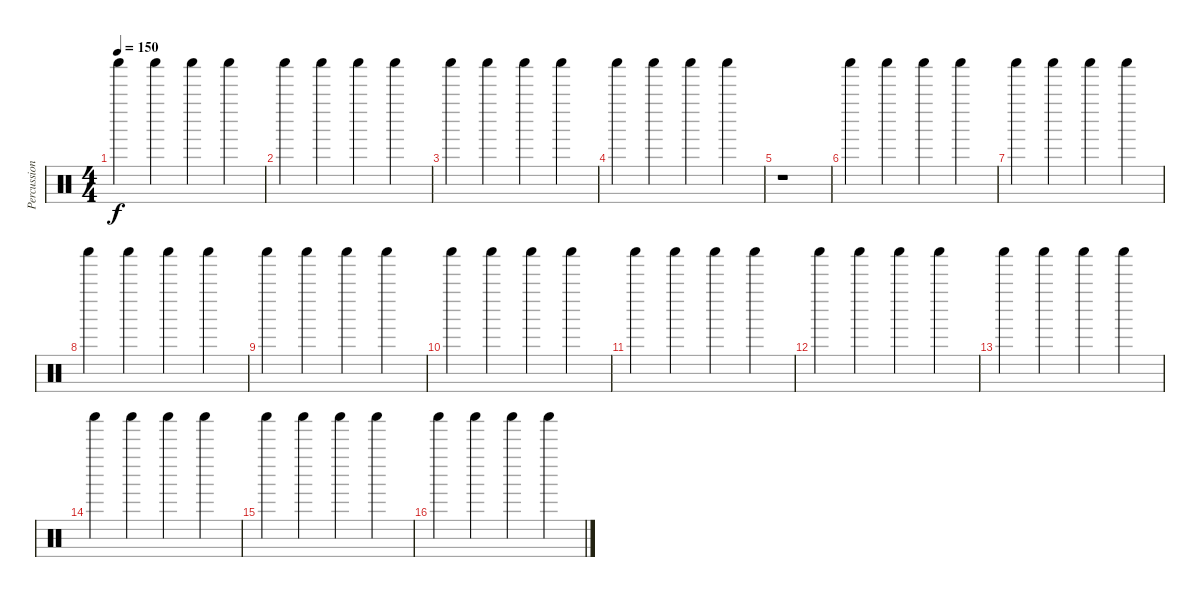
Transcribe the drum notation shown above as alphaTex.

\track ("Percussion - Aki Hakala" "Percussion") {instrument percussion}
\staff {score}
\articulation defaults
\ts (4 4)
\tempo 150
\clef neutral
\ks c "Shaker (hit)".4{dy f} "Shaker (hit)".4 "Shaker (hit)".4 "Shaker (hit)".4
|
"Shaker (hit)".4 "Shaker (hit)".4 "Shaker (hit)".4 "Shaker (hit)".4 |
"Shaker (hit)".4 "Shaker (hit)".4 "Shaker (hit)".4 "Shaker (hit)".4 |
"Shaker (hit)".4 "Shaker (hit)".4 "Shaker (hit)".4 "Shaker (hit)".4 |
r.1 |
"Shaker (hit)".4 "Shaker (hit)".4 "Shaker (hit)".4 "Shaker (hit)".4 |
"Shaker (hit)".4 "Shaker (hit)".4 "Shaker (hit)".4 "Shaker (hit)".4 |
"Shaker (hit)".4 "Shaker (hit)".4 "Shaker (hit)".4 "Shaker (hit)".4 |
"Shaker (hit)".4 "Shaker (hit)".4 "Shaker (hit)".4 "Shaker (hit)".4 |
"Shaker (hit)".4 "Shaker (hit)".4 "Shaker (hit)".4 "Shaker (hit)".4 |
"Shaker (hit)".4 "Shaker (hit)".4 "Shaker (hit)".4 "Shaker (hit)".4 |
"Shaker (hit)".4 "Shaker (hit)".4 "Shaker (hit)".4 "Shaker (hit)".4 |
"Shaker (hit)".4 "Shaker (hit)".4 "Shaker (hit)".4 "Shaker (hit)".4 |
"Shaker (hit)".4 "Shaker (hit)".4 "Shaker (hit)".4 "Shaker (hit)".4 |
"Shaker (hit)".4 "Shaker (hit)".4 "Shaker (hit)".4 "Shaker (hit)".4 |
"Shaker (hit)".4 "Shaker (hit)".4 "Shaker (hit)".4 "Shaker (hit)".4
